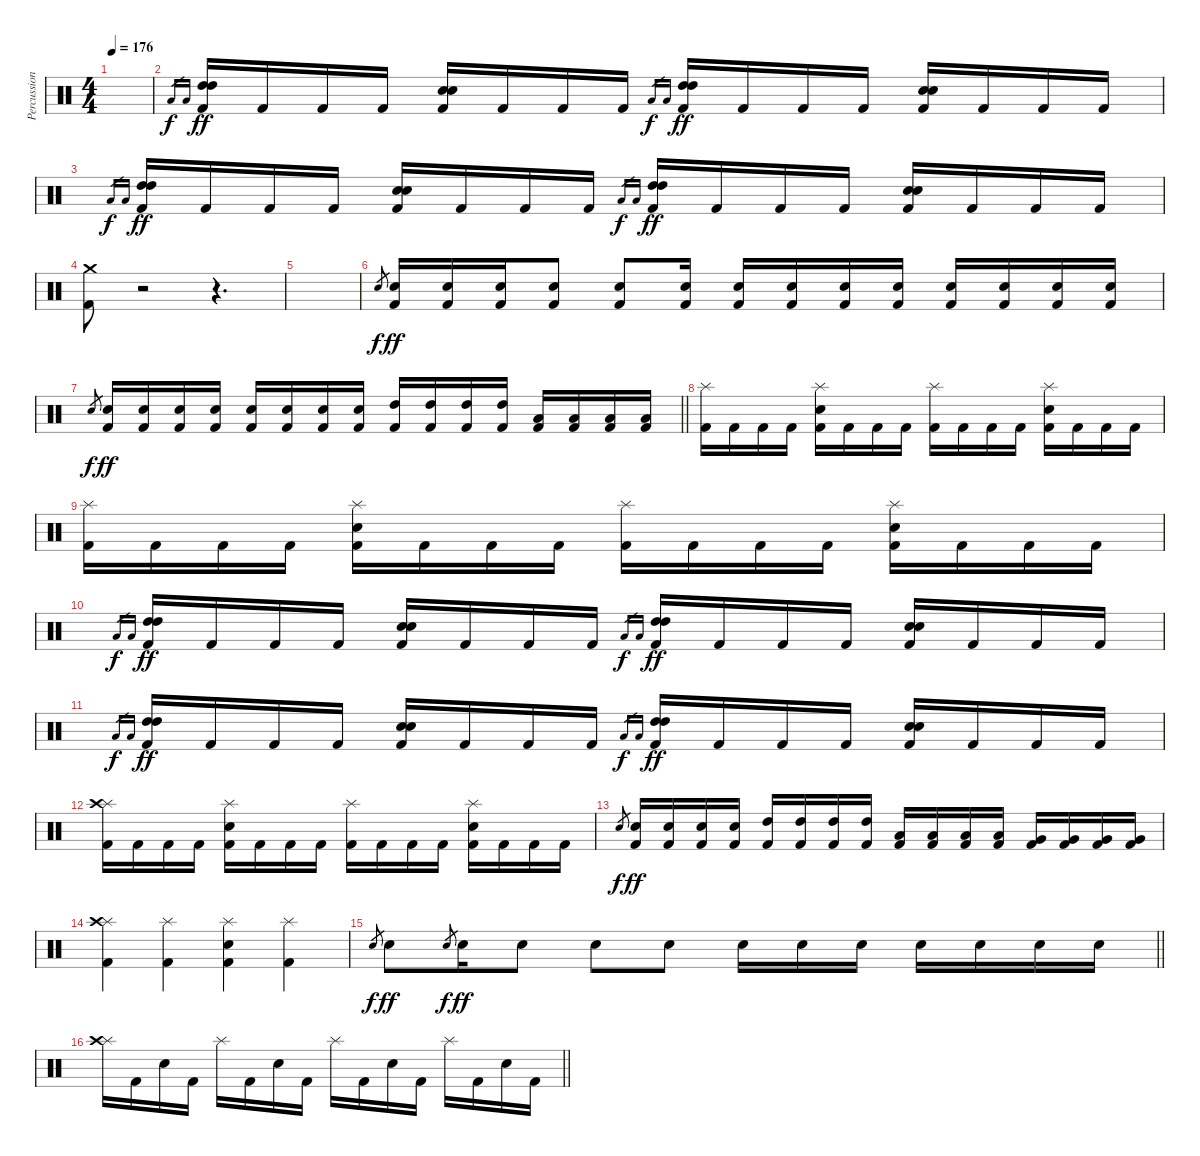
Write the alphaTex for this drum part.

\track ("Percussion" "Percussion") {instrument percussion}
\staff {score}
\articulation defaults
\ts (4 4)
\tempo 176
\clef neutral
\ks c
|
"Low Tom (hit)".16{gr dy f} "Low Tom (hit)".16{gr} ("Kick (hit) 2" "High Tom (hit)" "High Tom (hit)").16{dy ff} "Kick (hit) 2".16 "Kick (hit) 2".16 "Kick (hit) 2".16 ("Kick (hit) 2" "Electric Snare (hit)" "Electric Snare (hit)").16 "Kick (hit) 2".16 "Kick (hit) 2".16 "Kick (hit) 2".16 "Low Tom (hit)".16{gr dy f} "Low Tom (hit)".16{gr} ("Kick (hit) 2" "High Tom (hit)" "High Tom (hit)").16{dy ff} "Kick (hit) 2".16 "Kick (hit) 2".16 "Kick (hit) 2".16 ("Kick (hit) 2" "Electric Snare (hit)" "Electric Snare (hit)").16 "Kick (hit) 2".16 "Kick (hit) 2".16 "Kick (hit) 2".16 |
"Low Tom (hit)".16{gr dy f} "Low Tom (hit)".16{gr} ("Kick (hit) 2" "High Tom (hit)" "High Tom (hit)").16{dy ff} "Kick (hit) 2".16 "Kick (hit) 2".16 "Kick (hit) 2".16 ("Kick (hit) 2" "Electric Snare (hit)" "Electric Snare (hit)").16 "Kick (hit) 2".16 "Kick (hit) 2".16 "Kick (hit) 2".16 "Low Tom (hit)".16{gr dy f} "Low Tom (hit)".16{gr} ("Kick (hit) 2" "High Tom (hit)" "High Tom (hit)").16{dy ff} "Kick (hit) 2".16 "Kick (hit) 2".16 "Kick (hit) 2".16 ("Kick (hit) 2" "Electric Snare (hit)" "Electric Snare (hit)").16 "Kick (hit) 2".16 "Kick (hit) 2".16 "Kick (hit) 2".16 |
("Kick (hit) 2" "Crash medium (hit)").8 r.2 r.4{d} |
|
"Electric Snare (hit)".8{gr dy f} ("Kick (hit) 2" "Electric Snare (hit)").16{dy ff} ("Kick (hit) 2" "Electric Snare (hit)").16 ("Kick (hit) 2" "Electric Snare (hit)").16 ("Kick (hit) 2" "Electric Snare (hit)").8 ("Kick (hit) 2" "Electric Snare (hit)").8 ("Kick (hit) 2" "Electric Snare (hit)").16 ("Kick (hit) 2" "Electric Snare (hit)").16 ("Kick (hit) 2" "Electric Snare (hit)").16 ("Kick (hit) 2" "Electric Snare (hit)").16 ("Kick (hit) 2" "Electric Snare (hit)").16 ("Kick (hit) 2" "Electric Snare (hit)").16 ("Kick (hit) 2" "Electric Snare (hit)").16 ("Kick (hit) 2" "Electric Snare (hit)").16 ("Kick (hit) 2" "Electric Snare (hit)").16 |
\barLineRight lightlight "Electric Snare (hit)".8{gr dy f}
("Kick (hit) 2" "Electric Snare (hit)").16{dy ff} ("Kick (hit) 2" "Electric Snare (hit)").16 ("Kick (hit) 2" "Electric Snare (hit)").16 ("Kick (hit) 2" "Electric Snare (hit)").16 ("Kick (hit) 2" "Electric Snare (hit)").16 ("Kick (hit) 2" "Electric Snare (hit)").16 ("Kick (hit) 2" "Electric Snare (hit)").16 ("Kick (hit) 2" "Electric Snare (hit)").16 ("Kick (hit) 2" "High Tom (hit)").16 ("Kick (hit) 2" "High Tom (hit)").16 ("Kick (hit) 2" "High Tom (hit)").16 ("Kick (hit) 2" "High Tom (hit)").16 ("Kick (hit) 2" "Low Tom (hit)").16 ("Kick (hit) 2" "Low Tom (hit)").16 ("Kick (hit) 2" "Low Tom (hit)").16 ("Kick (hit) 2" "Low Tom (hit)").16 |
("Kick (hit) 2" "Splash (hit)").16 "Kick (hit) 2".16 "Kick (hit) 2".16 "Kick (hit) 2".16 ("Kick (hit) 2" "Electric Snare (hit)" "Splash (hit)").16 "Kick (hit) 2".16 "Kick (hit) 2".16 "Kick (hit) 2".16 ("Kick (hit) 2" "Splash (hit)").16 "Kick (hit) 2".16 "Kick (hit) 2".16 "Kick (hit) 2".16 ("Kick (hit) 2" "Electric Snare (hit)" "Splash (hit)").16 "Kick (hit) 2".16 "Kick (hit) 2".16 "Kick (hit) 2".16 |
("Kick (hit) 2" "Splash (hit)").16 "Kick (hit) 2".16 "Kick (hit) 2".16 "Kick (hit) 2".16 ("Kick (hit) 2" "Electric Snare (hit)" "Splash (hit)").16 "Kick (hit) 2".16 "Kick (hit) 2".16 "Kick (hit) 2".16 ("Kick (hit) 2" "Splash (hit)").16 "Kick (hit) 2".16 "Kick (hit) 2".16 "Kick (hit) 2".16 ("Kick (hit) 2" "Electric Snare (hit)" "Splash (hit)").16 "Kick (hit) 2".16 "Kick (hit) 2".16 "Kick (hit) 2".16 |
"Low Tom (hit)".16{gr dy f} "Low Tom (hit)".16{gr} ("Kick (hit) 2" "High Tom (hit)" "High Tom (hit)").16{dy ff} "Kick (hit) 2".16 "Kick (hit) 2".16 "Kick (hit) 2".16 ("Kick (hit) 2" "Electric Snare (hit)" "Electric Snare (hit)").16 "Kick (hit) 2".16 "Kick (hit) 2".16 "Kick (hit) 2".16 "Low Tom (hit)".16{gr dy f} "Low Tom (hit)".16{gr} ("Kick (hit) 2" "High Tom (hit)" "High Tom (hit)").16{dy ff} "Kick (hit) 2".16 "Kick (hit) 2".16 "Kick (hit) 2".16 ("Kick (hit) 2" "Electric Snare (hit)" "Electric Snare (hit)").16 "Kick (hit) 2".16 "Kick (hit) 2".16 "Kick (hit) 2".16 |
"Low Tom (hit)".16{gr dy f} "Low Tom (hit)".16{gr} ("Kick (hit) 2" "High Tom (hit)" "High Tom (hit)").16{dy ff} "Kick (hit) 2".16 "Kick (hit) 2".16 "Kick (hit) 2".16 ("Kick (hit) 2" "Electric Snare (hit)" "Electric Snare (hit)").16 "Kick (hit) 2".16 "Kick (hit) 2".16 "Kick (hit) 2".16 "Low Tom (hit)".16{gr dy f} "Low Tom (hit)".16{gr} ("Kick (hit) 2" "High Tom (hit)" "High Tom (hit)").16{dy ff} "Kick (hit) 2".16 "Kick (hit) 2".16 "Kick (hit) 2".16 ("Kick (hit) 2" "Electric Snare (hit)" "Electric Snare (hit)").16 "Kick (hit) 2".16 "Kick (hit) 2".16 "Kick (hit) 2".16 |
("Kick (hit) 2" "Splash (hit)" "Crash high (hit)").16 "Kick (hit) 2".16 "Kick (hit) 2".16 "Kick (hit) 2".16 ("Kick (hit) 2" "Electric Snare (hit)" "Splash (hit)").16 "Kick (hit) 2".16 "Kick (hit) 2".16 "Kick (hit) 2".16 ("Kick (hit) 2" "Splash (hit)").16 "Kick (hit) 2".16 "Kick (hit) 2".16 "Kick (hit) 2".16 ("Kick (hit) 2" "Electric Snare (hit)" "Splash (hit)").16 "Kick (hit) 2".16 "Kick (hit) 2".16 "Kick (hit) 2".16 |
"Electric Snare (hit)".8{gr dy f} ("Kick (hit) 2" "Electric Snare (hit)").16{dy ff} ("Kick (hit) 2" "Electric Snare (hit)").16 ("Kick (hit) 2" "Electric Snare (hit)").16 ("Kick (hit) 2" "Electric Snare (hit)").16 ("Kick (hit) 2" "High Tom (hit)").16 ("Kick (hit) 2" "High Tom (hit)").16 ("Kick (hit) 2" "High Tom (hit)").16 ("Kick (hit) 2" "High Tom (hit)").16 ("Kick (hit) 2" "Low Tom (hit)").16 ("Kick (hit) 2" "Low Tom (hit)").16 ("Kick (hit) 2" "Low Tom (hit)").16 ("Kick (hit) 2" "Low Tom (hit)").16 ("Kick (hit) 2" "Very Low Tom (hit)").16 ("Kick (hit) 2" "Very Low Tom (hit)").16 ("Kick (hit) 2" "Very Low Tom (hit)").16 ("Kick (hit) 2" "Very Low Tom (hit)").16 |
("Kick (hit) 2" "Splash (hit)" "Crash high (hit)").4 ("Kick (hit) 2" "Splash (hit)").4 ("Kick (hit) 2" "Electric Snare (hit)" "Splash (hit)").4 ("Kick (hit) 2" "Splash (hit)").4 |
\barLineRight lightlight "Electric Snare (hit)"{sl}.8{gr dy f} "Electric Snare (hit)".8{dy ff} "Electric Snare (hit)".8{gr dy f} "Electric Snare (hit)".16{dy ff} "Electric Snare (hit)".8 "Electric Snare (hit)".8 "Electric Snare (hit)".8 "Electric Snare (hit)".16 "Electric Snare (hit)".16 "Electric Snare (hit)".16 "Electric Snare (hit)".16 "Electric Snare (hit)".16 "Electric Snare (hit)".16 "Electric Snare (hit)".16
|
\barLineRight lightlight
("Splash (hit)" "Crash high (hit)").16 "Kick (hit) 2".16 "Electric Snare (hit)".16 "Kick (hit) 2".16 "Splash (hit)".16 "Kick (hit) 2".16 "Electric Snare (hit)".16 "Kick (hit) 2".16 "Splash (hit)".16 "Kick (hit) 2".16 "Electric Snare (hit)".16 "Kick (hit) 2".16 "Splash (hit)".16 "Kick (hit) 2".16 "Electric Snare (hit)".16 "Kick (hit) 2".16
